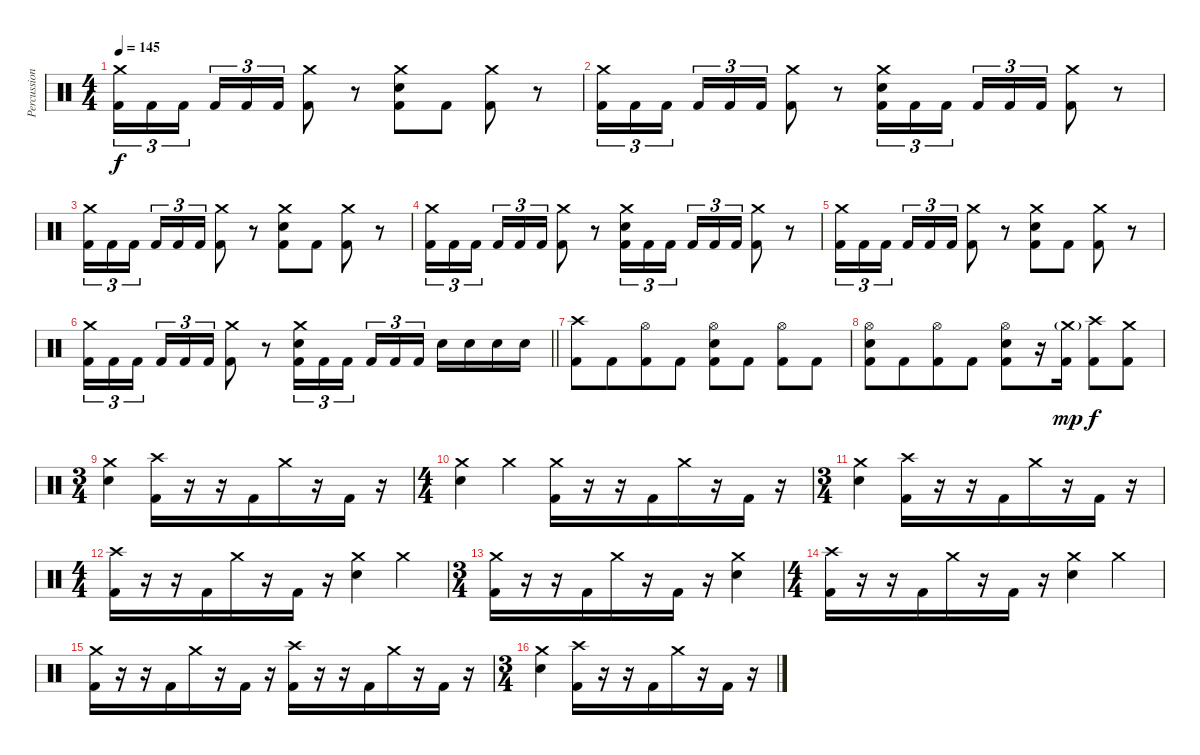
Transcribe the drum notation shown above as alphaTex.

\track ("Percussion" "Percussion") {instrument percussion}
\staff {score}
\articulation defaults
\ts (4 4)
\tempo 145
\clef neutral
\ks c
("Crash medium (hit)" "Kick (hit) 2").16{tu (3 2) dy f beam merge} "Kick (hit) 2".16{tu (3 2)} "Kick (hit) 2".16{tu (3 2) beam splitsecondary} "Kick (hit) 2".16{tu (3 2)} "Kick (hit) 2".16{tu (3 2) beam merge} "Kick (hit) 2".16{tu (3 2)} ("Crash medium (hit)" "Kick (hit) 2").8 r.8 ("Crash medium (hit)" "Electric Snare (hit)" "Kick (hit) 2").8{beam merge} "Kick (hit) 2".8 ("Crash medium (hit)" "Kick (hit) 2").8{beam merge} r.8 |
("Crash medium (hit)" "Kick (hit) 2").16{tu (3 2) beam merge} "Kick (hit) 2".16{tu (3 2)} "Kick (hit) 2".16{tu (3 2) beam splitsecondary} "Kick (hit) 2".16{tu (3 2)} "Kick (hit) 2".16{tu (3 2) beam merge} "Kick (hit) 2".16{tu (3 2)} ("Crash medium (hit)" "Kick (hit) 2").8 r.8{beam merge} ("Crash medium (hit)" "Electric Snare (hit)" "Kick (hit) 2").16{tu (3 2) beam merge} "Kick (hit) 2".16{tu (3 2)} "Kick (hit) 2".16{tu (3 2) beam splitsecondary} "Kick (hit) 2".16{tu (3 2)} "Kick (hit) 2".16{tu (3 2) beam merge} "Kick (hit) 2".16{tu (3 2)} ("Crash medium (hit)" "Kick (hit) 2").8 r.8 |
("Crash medium (hit)" "Kick (hit) 2").16{tu (3 2) beam merge} "Kick (hit) 2".16{tu (3 2)} "Kick (hit) 2".16{tu (3 2) beam splitsecondary} "Kick (hit) 2".16{tu (3 2)} "Kick (hit) 2".16{tu (3 2) beam merge} "Kick (hit) 2".16{tu (3 2)} ("Crash medium (hit)" "Kick (hit) 2").8 r.8 ("Crash medium (hit)" "Electric Snare (hit)" "Kick (hit) 2").8{beam merge} "Kick (hit) 2".8 ("Crash medium (hit)" "Kick (hit) 2").8{beam merge} r.8 |
("Crash medium (hit)" "Kick (hit) 2").16{tu (3 2) beam merge} "Kick (hit) 2".16{tu (3 2)} "Kick (hit) 2".16{tu (3 2) beam splitsecondary} "Kick (hit) 2".16{tu (3 2)} "Kick (hit) 2".16{tu (3 2) beam merge} "Kick (hit) 2".16{tu (3 2)} ("Crash medium (hit)" "Kick (hit) 2").8 r.8{beam merge} ("Crash medium (hit)" "Electric Snare (hit)" "Kick (hit) 2").16{tu (3 2) beam merge} "Kick (hit) 2".16{tu (3 2)} "Kick (hit) 2".16{tu (3 2) beam splitsecondary} "Kick (hit) 2".16{tu (3 2)} "Kick (hit) 2".16{tu (3 2) beam merge} "Kick (hit) 2".16{tu (3 2)} ("Crash medium (hit)" "Kick (hit) 2").8 r.8 |
("Crash medium (hit)" "Kick (hit) 2").16{tu (3 2) beam merge} "Kick (hit) 2".16{tu (3 2)} "Kick (hit) 2".16{tu (3 2) beam splitsecondary} "Kick (hit) 2".16{tu (3 2)} "Kick (hit) 2".16{tu (3 2) beam merge} "Kick (hit) 2".16{tu (3 2)} ("Crash medium (hit)" "Kick (hit) 2").8 r.8 ("Crash medium (hit)" "Electric Snare (hit)" "Kick (hit) 2").8{beam merge} "Kick (hit) 2".8 ("Crash medium (hit)" "Kick (hit) 2").8{beam merge} r.8 |
\barLineRight lightlight
("Crash medium (hit)" "Kick (hit) 2").16{tu (3 2) beam merge} "Kick (hit) 2".16{tu (3 2)} "Kick (hit) 2".16{tu (3 2) beam splitsecondary} "Kick (hit) 2".16{tu (3 2)} "Kick (hit) 2".16{tu (3 2) beam merge} "Kick (hit) 2".16{tu (3 2)} ("Crash medium (hit)" "Kick (hit) 2").8 r.8{beam merge} ("Crash medium (hit)" "Electric Snare (hit)" "Kick (hit) 2").16{tu (3 2) beam merge} "Kick (hit) 2".16{tu (3 2)} "Kick (hit) 2".16{tu (3 2) beam splitsecondary} "Kick (hit) 2".16{tu (3 2)} "Kick (hit) 2".16{tu (3 2) beam merge} "Kick (hit) 2".16{tu (3 2)} "Electric Snare (hit)".16 "Electric Snare (hit)".16{beam merge} "Electric Snare (hit)".16{beam merge} "Electric Snare (hit)".16 |
\section ("" "")
("Crash high (hit)" "Kick (hit) 2").8 "Kick (hit) 2".8{beam merge} ("Hi-Hat (open)" "Kick (hit) 2").8{beam merge} "Kick (hit) 2".8 ("Hi-Hat (open)" "Electric Snare (hit)" "Kick (hit) 2").8 "Kick (hit) 2".8 ("Hi-Hat (open)" "Kick (hit) 2").8 "Kick (hit) 2".8 |
("Hi-Hat (open)" "Electric Snare (hit)" "Kick (hit) 2").8 "Kick (hit) 2".8{beam merge} ("Hi-Hat (open)" "Kick (hit) 2").8{beam merge} "Kick (hit) 2".8 ("Hi-Hat (open)" "Electric Snare (hit)" "Kick (hit) 2").8 r.16 ("Crash medium (hit)"{g} "Kick (hit) 2").16{dy mp} ("Crash high (hit)" "Kick (hit) 2").8{dy f} ("Crash medium (hit)" "Kick (hit) 2").8 |
\ts (3 4)
("Crash medium (hit)" "Electric Snare (hit)").4 ("Crash high (hit)" "Kick (hit) 2").16 r.16 r.16{beam merge} "Kick (hit) 2".16{beam merge} "Crash medium (hit)".16{beam merge} r.16 "Kick (hit) 2".16 r.16 |
\ts (4 4)
("Crash medium (hit)" "Electric Snare (hit)").4 "Crash medium (hit)".4 ("Crash medium (hit)" "Kick (hit) 2").16 r.16 r.16{beam merge} "Kick (hit) 2".16{beam merge} "Crash medium (hit)".16{beam merge} r.16 "Kick (hit) 2".16 r.16 |
\ts (3 4)
("Crash medium (hit)" "Electric Snare (hit)").4 ("Crash high (hit)" "Kick (hit) 2").16 r.16 r.16{beam merge} "Kick (hit) 2".16{beam merge} "Crash medium (hit)".16{beam merge} r.16 "Kick (hit) 2".16 r.16 |
\ts (4 4)
("Crash high (hit)" "Kick (hit) 2").16 r.16 r.16{beam merge} "Kick (hit) 2".16{beam merge} "Crash medium (hit)".16{beam merge} r.16 "Kick (hit) 2".16 r.16 ("Crash medium (hit)" "Electric Snare (hit)").4 "Crash medium (hit)".4 |
\ts (3 4)
("Crash medium (hit)" "Kick (hit) 2").16 r.16 r.16{beam merge} "Kick (hit) 2".16{beam merge} "Crash medium (hit)".16{beam merge} r.16 "Kick (hit) 2".16 r.16{beam merge} ("Crash medium (hit)" "Electric Snare (hit)").4 |
\ts (4 4)
("Crash high (hit)" "Kick (hit) 2").16 r.16 r.16{beam merge} "Kick (hit) 2".16{beam merge} "Crash medium (hit)".16{beam merge} r.16 "Kick (hit) 2".16 r.16 ("Crash medium (hit)" "Electric Snare (hit)").4 "Crash medium (hit)".4 |
("Crash medium (hit)" "Kick (hit) 2").16 r.16 r.16{beam merge} "Kick (hit) 2".16{beam merge} "Crash medium (hit)".16{beam merge} r.16 "Kick (hit) 2".16 r.16 ("Crash high (hit)" "Kick (hit) 2").16 r.16 r.16{beam merge} "Kick (hit) 2".16{beam merge} "Crash medium (hit)".16{beam merge} r.16 "Kick (hit) 2".16 r.16 |
\ts (3 4)
("Crash medium (hit)" "Electric Snare (hit)").4 ("Crash high (hit)" "Kick (hit) 2").16 r.16 r.16{beam merge} "Kick (hit) 2".16{beam merge} "Crash medium (hit)".16{beam merge} r.16 "Kick (hit) 2".16 r.16
